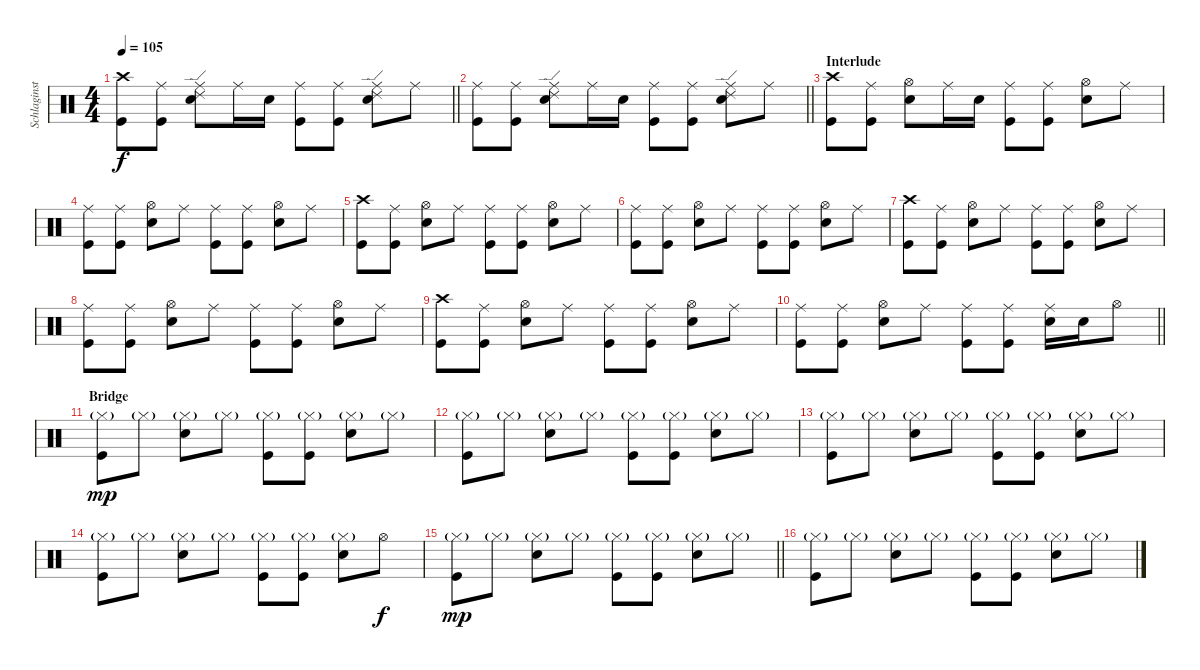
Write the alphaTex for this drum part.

\track ("Schlaginstrumente - Auswahl" "Schlaginst") {instrument percussion}
\staff {score}
\articulation defaults
\ts (4 4)
\tempo 105
\clef neutral
\barLineRight lightlight
\ks c
("Crash high (hit)" "Kick (hit)").8{dy f} ("Ride (middle)" "Kick (hit)").8 ("Ride (middle)" "Ride (edge) 2" "Snare (hit) 2").8 "Ride (middle)".16 "Snare (hit) 2".16 ("Ride (middle)" "Kick (hit)").8 ("Ride (middle)" "Kick (hit)").8 ("Ride (middle)" "Ride (edge) 2" "Snare (hit) 2").8 "Ride (middle)".8 |
\barLineRight lightlight
("Ride (middle)" "Kick (hit)").8 ("Ride (middle)" "Kick (hit)").8 ("Ride (middle)" "Ride (edge) 2" "Snare (hit) 2").8 "Ride (middle)".16 "Snare (hit) 2".16 ("Ride (middle)" "Kick (hit)").8 ("Ride (middle)" "Kick (hit)").8 ("Ride (middle)" "Ride (edge) 2" "Snare (hit) 2").8 "Ride (middle)".8 |
\section ("" "Interlude")
("Crash high (hit)" "Kick (hit)").8 ("Ride (middle)" "Kick (hit)").8 ("Hi-Hat (open)" "Snare (hit) 2").8 "Ride (middle)".16 "Snare (hit) 2".16 ("Ride (middle)" "Kick (hit)").8 ("Ride (middle)" "Kick (hit)").8 ("Hi-Hat (open)" "Snare (hit) 2").8 "Ride (middle)".8 |
("Ride (middle)" "Kick (hit)").8 ("Ride (middle)" "Kick (hit)").8 ("Hi-Hat (open)" "Snare (hit) 2").8 "Ride (middle)".8 ("Ride (middle)" "Kick (hit)").8 ("Ride (middle)" "Kick (hit)").8 ("Hi-Hat (open)" "Snare (hit) 2").8 "Ride (middle)".8 |
("Crash high (hit)" "Kick (hit)").8 ("Ride (middle)" "Kick (hit)").8 ("Hi-Hat (open)" "Snare (hit) 2").8 "Ride (middle)".8 ("Ride (middle)" "Kick (hit)").8 ("Ride (middle)" "Kick (hit)").8 ("Hi-Hat (open)" "Snare (hit) 2").8 "Ride (middle)".8 |
("Ride (middle)" "Kick (hit)").8 ("Ride (middle)" "Kick (hit)").8 ("Hi-Hat (open)" "Snare (hit) 2").8 "Ride (middle)".8 ("Ride (middle)" "Kick (hit)").8 ("Ride (middle)" "Kick (hit)").8 ("Hi-Hat (open)" "Snare (hit) 2").8 "Ride (middle)".8 |
("Crash high (hit)" "Kick (hit)").8 ("Ride (middle)" "Kick (hit)").8 ("Hi-Hat (open)" "Snare (hit) 2").8 "Ride (middle)".8 ("Ride (middle)" "Kick (hit)").8 ("Ride (middle)" "Kick (hit)").8 ("Hi-Hat (open)" "Snare (hit) 2").8 "Ride (middle)".8 |
("Ride (middle)" "Kick (hit)").8 ("Ride (middle)" "Kick (hit)").8 ("Hi-Hat (open)" "Snare (hit) 2").8 "Ride (middle)".8 ("Ride (middle)" "Kick (hit)").8 ("Ride (middle)" "Kick (hit)").8 ("Hi-Hat (open)" "Snare (hit) 2").8 "Ride (middle)".8 |
("Crash high (hit)" "Kick (hit)").8 ("Ride (middle)" "Kick (hit)").8 ("Hi-Hat (open)" "Snare (hit) 2").8 "Ride (middle)".8 ("Ride (middle)" "Kick (hit)").8 ("Ride (middle)" "Kick (hit)").8 ("Hi-Hat (open)" "Snare (hit) 2").8 "Ride (middle)".8 |
\barLineRight lightlight
("Ride (middle)" "Kick (hit)").8 ("Ride (middle)" "Kick (hit)").8 ("Hi-Hat (open)" "Snare (hit) 2").8 "Ride (middle)".8 ("Ride (middle)" "Kick (hit)").8 ("Ride (middle)" "Kick (hit)").8 ("Ride (middle)" "Snare (hit) 2").16 "Snare (hit) 2".16 "Hi-Hat (open)".8 |
\section ("" "Bridge")
("Hi-Hat (closed)"{g} "Kick (hit)").8{dy mp} "Hi-Hat (closed)"{g}.8 ("Hi-Hat (closed)"{g} "Snare (hit) 2").8 "Hi-Hat (closed)"{g}.8 ("Hi-Hat (closed)"{g} "Kick (hit)").8 ("Hi-Hat (closed)"{g} "Kick (hit)").8 ("Hi-Hat (closed)"{g} "Snare (hit) 2").8 "Hi-Hat (closed)"{g}.8 |
("Hi-Hat (closed)"{g} "Kick (hit)").8 "Hi-Hat (closed)"{g}.8 ("Hi-Hat (closed)"{g} "Snare (hit) 2").8 "Hi-Hat (closed)"{g}.8 ("Hi-Hat (closed)"{g} "Kick (hit)").8 ("Hi-Hat (closed)"{g} "Kick (hit)").8 ("Hi-Hat (closed)"{g} "Snare (hit) 2").8 "Hi-Hat (closed)"{g}.8 |
("Hi-Hat (closed)"{g} "Kick (hit)").8 "Hi-Hat (closed)"{g}.8 ("Hi-Hat (closed)"{g} "Snare (hit) 2").8 "Hi-Hat (closed)"{g}.8 ("Hi-Hat (closed)"{g} "Kick (hit)").8 ("Hi-Hat (closed)"{g} "Kick (hit)").8 ("Hi-Hat (closed)"{g} "Snare (hit) 2").8 "Hi-Hat (closed)"{g}.8 |
("Hi-Hat (closed)"{g} "Kick (hit)").8 "Hi-Hat (closed)"{g}.8 ("Hi-Hat (closed)"{g} "Snare (hit) 2").8 "Hi-Hat (closed)"{g}.8 ("Hi-Hat (closed)"{g} "Kick (hit)").8 ("Hi-Hat (closed)"{g} "Kick (hit)").8 ("Hi-Hat (closed)"{g} "Snare (hit) 2").8 "Hi-Hat (open)".8{dy f} |
\barLineRight lightlight
("Hi-Hat (closed)"{g} "Kick (hit)").8{dy mp} "Hi-Hat (closed)"{g}.8 ("Hi-Hat (closed)"{g} "Snare (hit) 2").8 "Hi-Hat (closed)"{g}.8 ("Hi-Hat (closed)"{g} "Kick (hit)").8 ("Hi-Hat (closed)"{g} "Kick (hit)").8 ("Hi-Hat (closed)"{g} "Snare (hit) 2").8 "Hi-Hat (closed)"{g}.8 |
("Hi-Hat (closed)"{g} "Kick (hit)").8 "Hi-Hat (closed)"{g}.8 ("Hi-Hat (closed)"{g} "Snare (hit) 2").8 "Hi-Hat (closed)"{g}.8 ("Hi-Hat (closed)"{g} "Kick (hit)").8 ("Hi-Hat (closed)"{g} "Kick (hit)").8 ("Hi-Hat (closed)"{g} "Snare (hit) 2").8 "Hi-Hat (closed)"{g}.8
